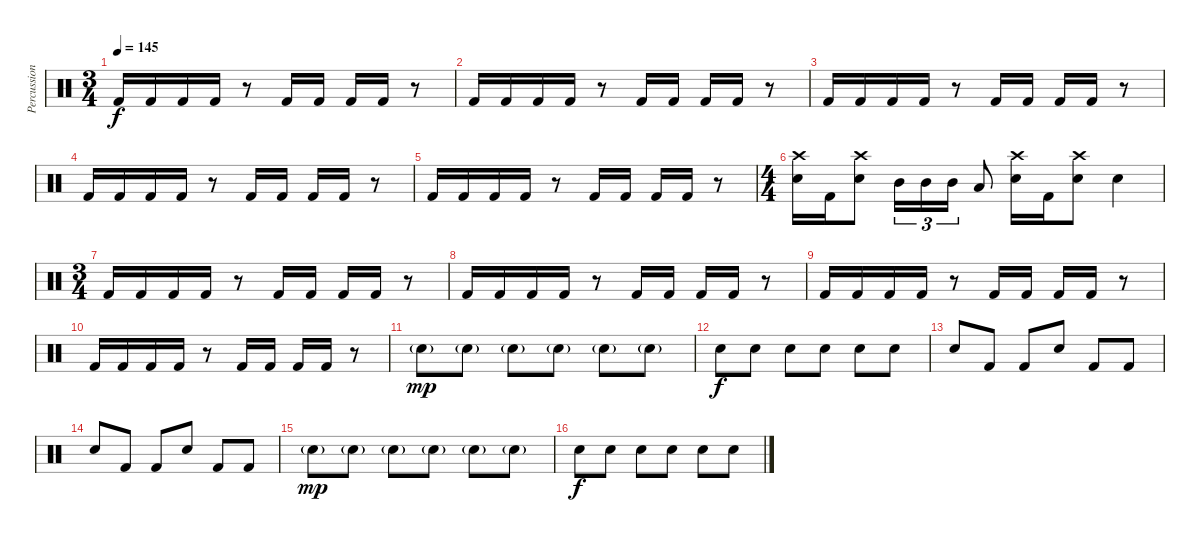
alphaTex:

\track ("Percussion" "Percussion") {instrument percussion}
\staff {score}
\articulation defaults
\ts (3 4)
\tempo 145
\clef neutral
\ks c "Kick (hit) 2".16{dy f} "Kick (hit) 2".16 "Kick (hit) 2".16 "Kick (hit) 2".16
r.8 "Kick (hit) 2".16 "Kick (hit) 2".16 "Kick (hit) 2".16 "Kick (hit) 2".16 r.8 |
"Kick (hit) 2".16 "Kick (hit) 2".16 "Kick (hit) 2".16 "Kick (hit) 2".16 r.8 "Kick (hit) 2".16 "Kick (hit) 2".16 "Kick (hit) 2".16 "Kick (hit) 2".16 r.8 |
"Kick (hit) 2".16 "Kick (hit) 2".16 "Kick (hit) 2".16 "Kick (hit) 2".16 r.8 "Kick (hit) 2".16 "Kick (hit) 2".16 "Kick (hit) 2".16 "Kick (hit) 2".16 r.8 |
"Kick (hit) 2".16 "Kick (hit) 2".16 "Kick (hit) 2".16 "Kick (hit) 2".16 r.8 "Kick (hit) 2".16 "Kick (hit) 2".16 "Kick (hit) 2".16 "Kick (hit) 2".16 r.8 |
"Kick (hit) 2".16 "Kick (hit) 2".16 "Kick (hit) 2".16 "Kick (hit) 2".16 r.8 "Kick (hit) 2".16 "Kick (hit) 2".16 "Kick (hit) 2".16 "Kick (hit) 2".16 r.8 |
\ts (4 4)
("Crash high (hit)" "Electric Snare (hit)").16 "Kick (hit) 2".16 ("Crash high (hit)" "Electric Snare (hit)").8 "Mid Tom (hit)".16{tu (3 2)} "Mid Tom (hit)".16{tu (3 2)} "Mid Tom (hit)".16{tu (3 2)} "Low Tom (hit)".8 ("Crash high (hit)" "Electric Snare (hit)").16 "Kick (hit) 2".16 ("Crash high (hit)" "Electric Snare (hit)").8 "Electric Snare (hit)".4 |
\ts (3 4)
"Kick (hit) 2".16 "Kick (hit) 2".16 "Kick (hit) 2".16 "Kick (hit) 2".16 r.8 "Kick (hit) 2".16 "Kick (hit) 2".16 "Kick (hit) 2".16 "Kick (hit) 2".16 r.8 |
"Kick (hit) 2".16 "Kick (hit) 2".16 "Kick (hit) 2".16 "Kick (hit) 2".16 r.8 "Kick (hit) 2".16 "Kick (hit) 2".16 "Kick (hit) 2".16 "Kick (hit) 2".16 r.8 |
"Kick (hit) 2".16 "Kick (hit) 2".16 "Kick (hit) 2".16 "Kick (hit) 2".16 r.8 "Kick (hit) 2".16 "Kick (hit) 2".16 "Kick (hit) 2".16 "Kick (hit) 2".16 r.8 |
"Kick (hit) 2".16 "Kick (hit) 2".16 "Kick (hit) 2".16 "Kick (hit) 2".16 r.8 "Kick (hit) 2".16 "Kick (hit) 2".16 "Kick (hit) 2".16 "Kick (hit) 2".16 r.8 |
"Electric Snare (hit)"{g}.8{dy mp} "Electric Snare (hit)"{g}.8 "Electric Snare (hit)"{g}.8 "Electric Snare (hit)"{g}.8 "Electric Snare (hit)"{g}.8 "Electric Snare (hit)"{g}.8 |
"Electric Snare (hit)".8{dy f} "Electric Snare (hit)".8 "Electric Snare (hit)".8 "Electric Snare (hit)".8 "Electric Snare (hit)".8 "Electric Snare (hit)".8 |
"Electric Snare (hit)".8 "Kick (hit) 2".8 "Kick (hit) 2".8 "Electric Snare (hit)".8 "Kick (hit) 2".8 "Kick (hit) 2".8 |
"Electric Snare (hit)".8 "Kick (hit) 2".8 "Kick (hit) 2".8 "Electric Snare (hit)".8 "Kick (hit) 2".8 "Kick (hit) 2".8 |
"Electric Snare (hit)"{g}.8{dy mp} "Electric Snare (hit)"{g}.8 "Electric Snare (hit)"{g}.8 "Electric Snare (hit)"{g}.8 "Electric Snare (hit)"{g}.8 "Electric Snare (hit)"{g}.8 |
"Electric Snare (hit)".8{dy f} "Electric Snare (hit)".8 "Electric Snare (hit)".8 "Electric Snare (hit)".8 "Electric Snare (hit)".8 "Electric Snare (hit)".8
